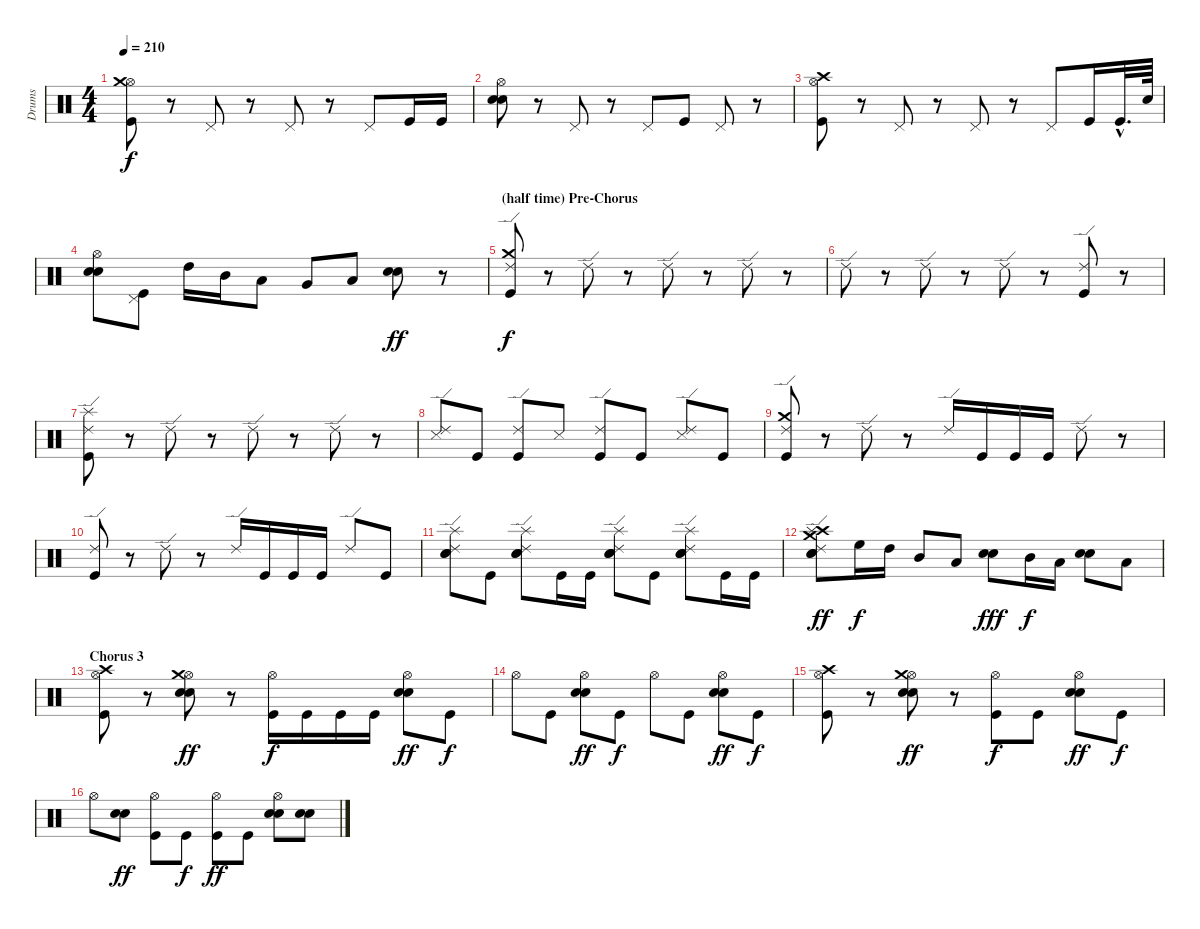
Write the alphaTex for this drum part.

\track ("Drums" "Drums") {instrument percussion}
\staff {score}
\articulation defaults
\ts (4 4)
\tempo 210
\clef neutral
\ks c
("Kick (hit)" "Hi-Hat (open)" "Crash medium (hit)").8{dy f} r.8 "Pedal Hi-Hat (hit)".8 r.8 "Pedal Hi-Hat (hit)".8 r.8 "Pedal Hi-Hat (hit)".8 "Kick (hit)".16 "Kick (hit)".16 |
("Electric Snare (hit)" "Hi-Hat (open)" "Electric Snare (hit)").8 r.8 "Pedal Hi-Hat (hit)".8 r.8 "Pedal Hi-Hat (hit)".8 "Kick (hit)".8 "Pedal Hi-Hat (hit)".8 r.8 |
("Kick (hit)" "Hi-Hat (open)" "Crash high (hit)").8 r.8 "Pedal Hi-Hat (hit)".8 r.8 "Pedal Hi-Hat (hit)".8 r.8 "Pedal Hi-Hat (hit)".8 "Kick (hit)".16 "Kick (hit)"{hac}.32{d} "Electric Snare (hit)".64 |
("Electric Snare (hit)" "Hi-Hat (open)" "Electric Snare (hit)").8 ("Kick (hit)" "Pedal Hi-Hat (hit)").8 "High Tom (hit)".16 "Mid Tom (hit)".16 "Low Tom (hit)".8 "Very Low Tom (hit)".8 "Low Floor Tom (hit)".8 ("Electric Snare (hit)" "Electric Snare (hit)").8{dy ff} r.8 |
\section ("" "(half time) Pre-Chorus")
("Kick (hit)" "Ride (edge) 2" "Crash medium (hit)").8{dy f} r.8 "Ride (edge) 2".8 r.8 "Ride (edge) 2".8 r.8 "Ride (edge) 2".8 r.8 |
"Ride (edge) 2".8 r.8 "Ride (edge) 2".8 r.8 "Ride (edge) 2".8 r.8 ("Kick (hit)" "Ride (edge) 2").8 r.8 |
("Kick (hit)" "Ride (edge) 2" "Splash (hit)").8 r.8 "Ride (edge) 2".8 r.8 "Ride (edge) 2".8 r.8 "Ride (edge) 2".8 r.8 |
("Snare (side stick) 3" "Ride (edge) 2").8 "Kick (hit)".8 ("Kick (hit)" "Ride (edge) 2").8 "Snare (side stick) 3".8 ("Kick (hit)" "Ride (edge) 2").8 "Kick (hit)".8 ("Snare (side stick) 3" "Ride (edge) 2").8 "Kick (hit)".8 |
("Kick (hit)" "Ride (edge) 2" "Crash medium (hit)").8 r.8 "Ride (edge) 2".8 r.8 "Ride (edge) 2".16 "Kick (hit)".16 "Kick (hit)".16 "Kick (hit)".16 "Ride (edge) 2".8 r.8 |
("Kick (hit)" "Ride (edge) 2").8 r.8 "Ride (edge) 2".8 r.8 "Ride (edge) 2".16 "Kick (hit)".16 "Kick (hit)".16 "Kick (hit)".16 "Ride (edge) 2".8 "Kick (hit)".8 |
("Electric Snare (hit)" "Electric Snare (hit)" "Ride (edge) 2" "Splash (hit)").8 "Kick (hit)".8 ("Electric Snare (hit)" "Electric Snare (hit)" "Ride (edge) 2" "Splash (hit)").8 "Kick (hit)".16 "Kick (hit)".16 ("Electric Snare (hit)" "Electric Snare (hit)" "Ride (edge) 2" "Splash (hit)").8 "Kick (hit)".8 ("Electric Snare (hit)" "Electric Snare (hit)" "Ride (edge) 2" "Splash (hit)").8 "Kick (hit)".16 "Kick (hit)".16 |
("Electric Snare (hit)" "Electric Snare (hit)" "Crash medium (hit)" "Crash high (hit)" "Ride (edge) 2" "Splash (hit)").8{dy ff} "High Floor Tom (hit)".16{dy f} "High Tom (hit)".16 "Mid Tom (hit)".8 "Low Tom (hit)".8 ("Electric Snare (hit)" "Electric Snare (hit)").8{dy fff} "Mid Tom (hit)".16{dy f} "Low Tom (hit)".16 ("Electric Snare (hit)" "Electric Snare (hit)").8 "Low Floor Tom (hit)".8 |
\section ("" "Chorus 3")
("Kick (hit)" "Hi-Hat (open)" "Crash high (hit)").8 r.8 ("Electric Snare (hit)" "Electric Snare (hit)" "Hi-Hat (open)" "Crash medium (hit)").8{dy ff} r.8 ("Kick (hit)" "Hi-Hat (open)").16{dy f} "Kick (hit)".16 "Kick (hit)".16 "Kick (hit)".16 ("Electric Snare (hit)" "Electric Snare (hit)" "Hi-Hat (open)").8{dy ff} "Kick (hit)".8{dy f} |
"Hi-Hat (open)".8 "Kick (hit)".8 ("Electric Snare (hit)" "Electric Snare (hit)" "Hi-Hat (open)").8{dy ff} "Kick (hit)".8{dy f} "Hi-Hat (open)".8 "Kick (hit)".8 ("Electric Snare (hit)" "Electric Snare (hit)" "Hi-Hat (open)").8{dy ff} "Kick (hit)".8{dy f} |
("Kick (hit)" "Hi-Hat (open)" "Crash high (hit)").8 r.8 ("Electric Snare (hit)" "Electric Snare (hit)" "Hi-Hat (open)" "Crash medium (hit)").8{dy ff} r.8 ("Kick (hit)" "Hi-Hat (open)").8{dy f} "Kick (hit)".8 ("Electric Snare (hit)" "Electric Snare (hit)" "Hi-Hat (open)").8{dy ff} "Kick (hit)".8{dy f} |
"Hi-Hat (open)".8 ("Electric Snare (hit)" "Electric Snare (hit)").8{dy ff} ("Kick (hit)" "Hi-Hat (open)").8 "Kick (hit)".8{dy f} ("Kick (hit)" "Hi-Hat (open)").8{dy ff} "Kick (hit)".8 ("Electric Snare (hit)" "Electric Snare (hit)" "Hi-Hat (open)").8 ("Electric Snare (hit)" "Electric Snare (hit)").8
